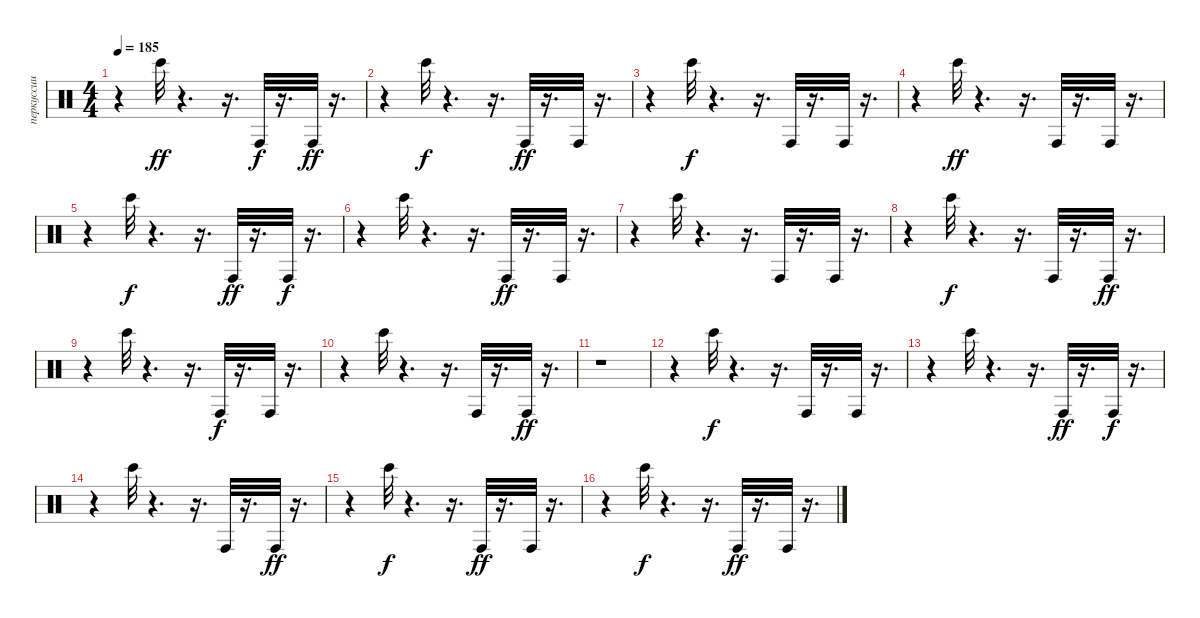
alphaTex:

\track ("перкуссии" "перкуссии") {instrument percussion}
\staff {score}
\articulation defaults
\ts (4 4)
\tempo 185
\clef neutral
\ks c
r.4{dy ff} "Bongo High (hit)".32 r.4{d} r.16{d} "Conga high (hit)".32{dy f} r.16{d} "Conga high (hit)".32{dy ff} r.16{d} |
r.4 "Bongo High (hit)".32{dy f} r.4{d} r.16{d} "Conga high (hit)".32{dy ff} r.16{d} "Conga high (hit)".32 r.16{d} |
r.4 "Bongo High (hit)".32{dy f} r.4{d} r.16{d} "Conga high (hit)".32 r.16{d} "Conga high (hit)".32 r.16{d} |
r.4 "Bongo High (hit)".32{dy ff} r.4{d} r.16{d} "Conga high (hit)".32 r.16{d} "Conga high (hit)".32 r.16{d} |
r.4 "Bongo High (hit)".32{dy f} r.4{d} r.16{d} "Conga high (hit)".32{dy ff} r.16{d} "Conga high (hit)".32{dy f} r.16{d} |
r.4 "Bongo High (hit)".32 r.4{d} r.16{d} "Conga high (hit)".32{dy ff} r.16{d} "Conga high (hit)".32 r.16{d} |
r.4 "Bongo High (hit)".32 r.4{d} r.16{d} "Conga high (hit)".32 r.16{d} "Conga high (hit)".32 r.16{d} |
r.4 "Bongo High (hit)".32{dy f} r.4{d} r.16{d} "Conga high (hit)".32 r.16{d} "Conga high (hit)".32{dy ff} r.16{d} |
r.4 "Bongo High (hit)".32 r.4{d} r.16{d} "Conga high (hit)".32{dy f} r.16{d} "Conga high (hit)".32 r.16{d} |
r.4 "Bongo High (hit)".32 r.4{d} r.16{d} "Conga high (hit)".32 r.16{d} "Conga high (hit)".32{dy ff} r.16{d} |
r.1 |
r.4 "Bongo High (hit)".32{dy f} r.4{d} r.16{d} "Conga high (hit)".32 r.16{d} "Conga high (hit)".32 r.16{d} |
r.4 "Bongo High (hit)".32 r.4{d} r.16{d} "Conga high (hit)".32{dy ff} r.16{d} "Conga high (hit)".32{dy f} r.16{d} |
r.4 "Bongo High (hit)".32 r.4{d} r.16{d} "Conga high (hit)".32 r.16{d} "Conga high (hit)".32{dy ff} r.16{d} |
r.4 "Bongo High (hit)".32{dy f} r.4{d} r.16{d} "Conga high (hit)".32{dy ff} r.16{d} "Conga high (hit)".32 r.16{d} |
r.4 "Bongo High (hit)".32{dy f} r.4{d} r.16{d} "Conga high (hit)".32{dy ff} r.16{d} "Conga high (hit)".32 r.16{d}
